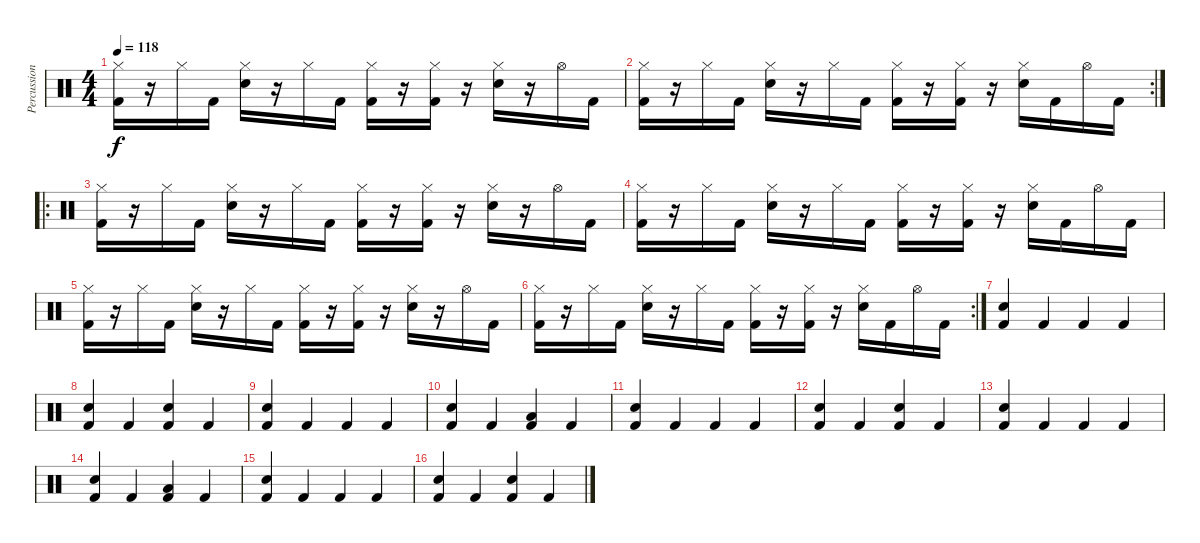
\track ("Percussion" "Percussion") {instrument percussion}
\staff {score}
\articulation defaults
\ts (4 4)
\tempo 118
\clef neutral
\ks c
("Hi-Hat (closed)" "Kick (hit) 2").16{dy f} r.16 "Hi-Hat (closed)".16 "Kick (hit) 2".16 ("Hi-Hat (closed)" "Electric Snare (hit)").16 r.16 "Hi-Hat (closed)".16 "Kick (hit) 2".16 ("Hi-Hat (closed)" "Kick (hit) 2").16 r.16 ("Hi-Hat (closed)" "Kick (hit) 2").16 r.16 ("Hi-Hat (closed)" "Electric Snare (hit)").16 r.16 "Hi-Hat (open)".16 "Kick (hit) 2".16 |
\rc 2
("Hi-Hat (closed)" "Kick (hit) 2").16 r.16 "Hi-Hat (closed)".16 "Kick (hit) 2".16 ("Hi-Hat (closed)" "Electric Snare (hit)").16 r.16 "Hi-Hat (closed)".16 "Kick (hit) 2".16 ("Hi-Hat (closed)" "Kick (hit) 2").16 r.16 ("Hi-Hat (closed)" "Kick (hit) 2").16 r.16 ("Hi-Hat (closed)" "Electric Snare (hit)").16 "Kick (hit) 2".16 "Hi-Hat (open)".16 "Kick (hit) 2".16 |
\ro
("Hi-Hat (closed)" "Kick (hit) 2").16{volume 16} r.16 "Hi-Hat (closed)".16 "Kick (hit) 2".16 ("Hi-Hat (closed)" "Electric Snare (hit)").16 r.16 "Hi-Hat (closed)".16 "Kick (hit) 2".16 ("Hi-Hat (closed)" "Kick (hit) 2").16 r.16 ("Hi-Hat (closed)" "Kick (hit) 2").16 r.16 ("Hi-Hat (closed)" "Electric Snare (hit)").16 r.16 "Hi-Hat (open)".16 "Kick (hit) 2".16 |
("Hi-Hat (closed)" "Kick (hit) 2").16 r.16 "Hi-Hat (closed)".16 "Kick (hit) 2".16 ("Hi-Hat (closed)" "Electric Snare (hit)").16 r.16 "Hi-Hat (closed)".16 "Kick (hit) 2".16 ("Hi-Hat (closed)" "Kick (hit) 2").16 r.16 ("Hi-Hat (closed)" "Kick (hit) 2").16 r.16 ("Hi-Hat (closed)" "Electric Snare (hit)").16 "Kick (hit) 2".16 "Hi-Hat (open)".16 "Kick (hit) 2".16 |
("Hi-Hat (closed)" "Kick (hit) 2").16 r.16 "Hi-Hat (closed)".16 "Kick (hit) 2".16 ("Hi-Hat (closed)" "Electric Snare (hit)").16 r.16 "Hi-Hat (closed)".16 "Kick (hit) 2".16 ("Hi-Hat (closed)" "Kick (hit) 2").16 r.16 ("Hi-Hat (closed)" "Kick (hit) 2").16 r.16 ("Hi-Hat (closed)" "Electric Snare (hit)").16 r.16 "Hi-Hat (open)".16 "Kick (hit) 2".16 |
\rc 2
("Hi-Hat (closed)" "Kick (hit) 2").16 r.16 "Hi-Hat (closed)".16 "Kick (hit) 2".16 ("Hi-Hat (closed)" "Electric Snare (hit)").16 r.16 "Hi-Hat (closed)".16 "Kick (hit) 2".16 ("Hi-Hat (closed)" "Kick (hit) 2").16 r.16 ("Hi-Hat (closed)" "Kick (hit) 2").16 r.16 ("Hi-Hat (closed)" "Electric Snare (hit)").16 "Kick (hit) 2".16 "Hi-Hat (open)".16 "Kick (hit) 2".16 |
("Electric Snare (hit)" "Kick (hit) 2").4 "Kick (hit) 2".4 "Kick (hit) 2".4 "Kick (hit) 2".4 |
("Electric Snare (hit)" "Kick (hit) 2").4 "Kick (hit) 2".4 ("Electric Snare (hit)" "Kick (hit) 2").4 "Kick (hit) 2".4 |
("Electric Snare (hit)" "Kick (hit) 2").4 "Kick (hit) 2".4 "Kick (hit) 2".4 "Kick (hit) 2".4 |
("Electric Snare (hit)" "Kick (hit) 2").4 "Kick (hit) 2".4 ("Low Floor Tom (hit)" "Kick (hit) 2").4 "Kick (hit) 2".4 |
("Electric Snare (hit)" "Kick (hit) 2").4 "Kick (hit) 2".4 "Kick (hit) 2".4 "Kick (hit) 2".4 |
("Electric Snare (hit)" "Kick (hit) 2").4 "Kick (hit) 2".4 ("Electric Snare (hit)" "Kick (hit) 2").4 "Kick (hit) 2".4 |
("Electric Snare (hit)" "Kick (hit) 2").4 "Kick (hit) 2".4 "Kick (hit) 2".4 "Kick (hit) 2".4 |
("Electric Snare (hit)" "Kick (hit) 2").4 "Kick (hit) 2".4 ("Low Floor Tom (hit)" "Kick (hit) 2").4 "Kick (hit) 2".4 |
("Electric Snare (hit)" "Kick (hit) 2").4 "Kick (hit) 2".4 "Kick (hit) 2".4 "Kick (hit) 2".4 |
("Electric Snare (hit)" "Kick (hit) 2").4 "Kick (hit) 2".4 ("Electric Snare (hit)" "Kick (hit) 2").4 "Kick (hit) 2".4
